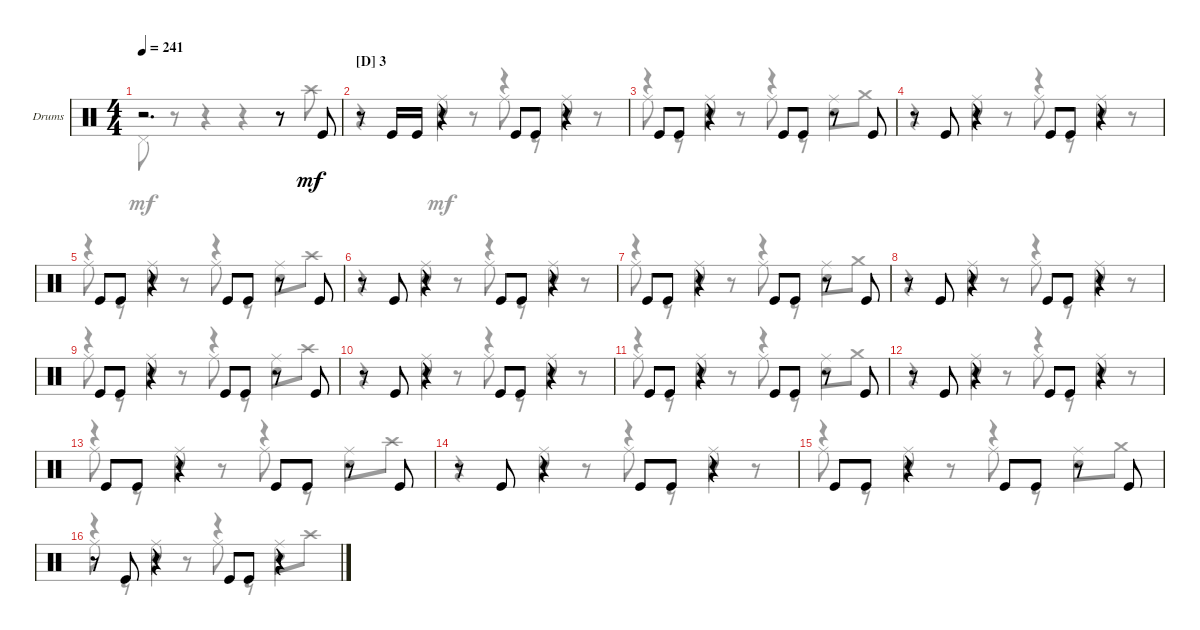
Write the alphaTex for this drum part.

\defaultSystemsLayout 4
\bracketExtendMode groupsimilarinstruments
\firstSystemTrackNameOrientation horizontal
\otherSystemsTrackNameOrientation horizontal
\track ("Drumkit" "Drums") {instrument percussion}
\staff {score}
\articulation defaults
\voice
\ts (4 4)
\tempo 241
\clef neutral
\ks c
r.2{d dy mf} r.8 "Kick (hit)".8 |
\section ("D" "3")
r.8 "Kick (hit)".16 "Kick (hit)".16 r.4 "Kick (hit)".8 "Kick (hit)".8 r.4 |
"Kick (hit)".8 "Kick (hit)".8 r.4 "Kick (hit)".8 "Kick (hit)".8 r.8 "Kick (hit)".8 |
r.8 "Kick (hit)".8 r.4 "Kick (hit)".8 "Kick (hit)".8 r.4 |
"Kick (hit)".8 "Kick (hit)".8 r.4 "Kick (hit)".8 "Kick (hit)".8 r.8 "Kick (hit)".8 |
r.8 "Kick (hit)".8 r.4 "Kick (hit)".8 "Kick (hit)".8 r.4 |
"Kick (hit)".8 "Kick (hit)".8 r.4 "Kick (hit)".8 "Kick (hit)".8 r.8 "Kick (hit)".8 |
r.8 "Kick (hit)".8 r.4 "Kick (hit)".8 "Kick (hit)".8 r.4 |
"Kick (hit)".8 "Kick (hit)".8 r.4 "Kick (hit)".8 "Kick (hit)".8 r.8 "Kick (hit)".8 |
r.8 "Kick (hit)".8 r.4 "Kick (hit)".8 "Kick (hit)".8 r.4 |
"Kick (hit)".8 "Kick (hit)".8 r.4 "Kick (hit)".8 "Kick (hit)".8 r.8 "Kick (hit)".8 |
r.8 "Kick (hit)".8 r.4 "Kick (hit)".8 "Kick (hit)".8 r.4 |
"Kick (hit)".8 "Kick (hit)".8 r.4 "Kick (hit)".8 "Kick (hit)".8 r.8 "Kick (hit)".8 |
r.8 "Kick (hit)".8 r.4 "Kick (hit)".8 "Kick (hit)".8 r.4 |
"Kick (hit)".8 "Kick (hit)".8 r.4 "Kick (hit)".8 "Kick (hit)".8 r.8 "Kick (hit)".8 |
r.8 "Kick (hit)".8 r.4 "Kick (hit)".8 "Kick (hit)".8 r.4
\voice
\clef neutral
\ottava regular
\simile none
\ks c
|
r.4 "Snare (hit) 2".4 r.4 "Snare (hit) 2".4 |
r.4 "Snare (hit) 2".4 r.4 "Snare (hit) 2".4 |
r.4 "Snare (hit) 2".4 r.4 "Snare (hit) 2".4 |
r.4 "Snare (hit) 2".4 r.4 "Snare (hit) 2".4 |
r.4 "Snare (hit) 2".4 r.4 "Snare (hit) 2".4 |
r.4 "Snare (hit) 2".4 r.4 "Snare (hit) 2".4 |
r.4 "Snare (hit) 2".4 r.4 "Snare (hit) 2".4 |
r.4 "Snare (hit) 2".4 r.4 "Snare (hit) 2".4 |
r.4 "Snare (hit) 2".4 r.4 "Snare (hit) 2".4 |
r.4 "Snare (hit) 2".4 r.4 "Snare (hit) 2".4 |
r.4 "Snare (hit) 2".4 r.4 "Snare (hit) 2".4 |
r.4 "Snare (hit) 2".4 r.4 "Snare (hit) 2".4 |
r.4 "Snare (hit) 2".4 r.4 "Snare (hit) 2".4 |
r.4 "Snare (hit) 2".4 r.4 "Snare (hit) 2".4 |
r.4 "Snare (hit) 2".4 r.4 "Snare (hit) 2".4
\voice
\clef neutral
\ottava regular
\simile none
\ks c "Pedal Hi-Hat (hit)".8{dy mf}
r.8 r.4 r.4 r.8 "Crash high (hit)".8 |
r.4 "Ride (middle)".8 r.8 "Ride (middle)".8 r.8 "Ride (middle)".8 r.8 |
"Ride (middle)".8 r.8 "Ride (middle)".8 r.8 "Ride (middle)".8 r.8 "Ride (middle)".8 "Crash medium (hit)".8 |
r.4 "Ride (middle)".8 r.8 "Ride (middle)".8 r.8 "Ride (middle)".8 r.8 |
"Ride (middle)".8 r.8 "Ride (middle)".8 r.8 "Ride (middle)".8 r.8 "Ride (middle)".8 "Crash high (hit)".8 |
r.4 "Ride (middle)".8 r.8 "Ride (middle)".8 r.8 "Ride (middle)".8 r.8 |
"Ride (middle)".8 r.8 "Ride (middle)".8 r.8 "Ride (middle)".8 r.8 "Ride (middle)".8 "Crash medium (hit)".8 |
r.4 "Ride (middle)".8 r.8 "Ride (middle)".8 r.8 "Ride (middle)".8 r.8 |
"Ride (middle)".8 r.8 "Ride (middle)".8 r.8 "Ride (middle)".8 r.8 "Ride (middle)".8 "Crash high (hit)".8 |
r.4 "Ride (middle)".8 r.8 "Ride (middle)".8 r.8 "Ride (middle)".8 r.8 |
"Ride (middle)".8 r.8 "Ride (middle)".8 r.8 "Ride (middle)".8 r.8 "Ride (middle)".8 "Crash medium (hit)".8 |
r.4 "Ride (middle)".8 r.8 "Ride (middle)".8 r.8 "Ride (middle)".8 r.8 |
"Ride (middle)".8 r.8 "Ride (middle)".8 r.8 "Ride (middle)".8 r.8 "Ride (middle)".8 "Crash high (hit)".8 |
r.4 "Ride (middle)".8 r.8 "Ride (middle)".8 r.8 "Ride (middle)".8 r.8 |
"Ride (middle)".8 r.8 "Ride (middle)".8 r.8 "Ride (middle)".8 r.8 "Ride (middle)".8 "Crash medium (hit)".8 |
"Ride (middle)".8 r.8 "Ride (middle)".8 r.8 "Ride (middle)".8 r.8 "Ride (middle)".8 "Crash high (hit)".8
